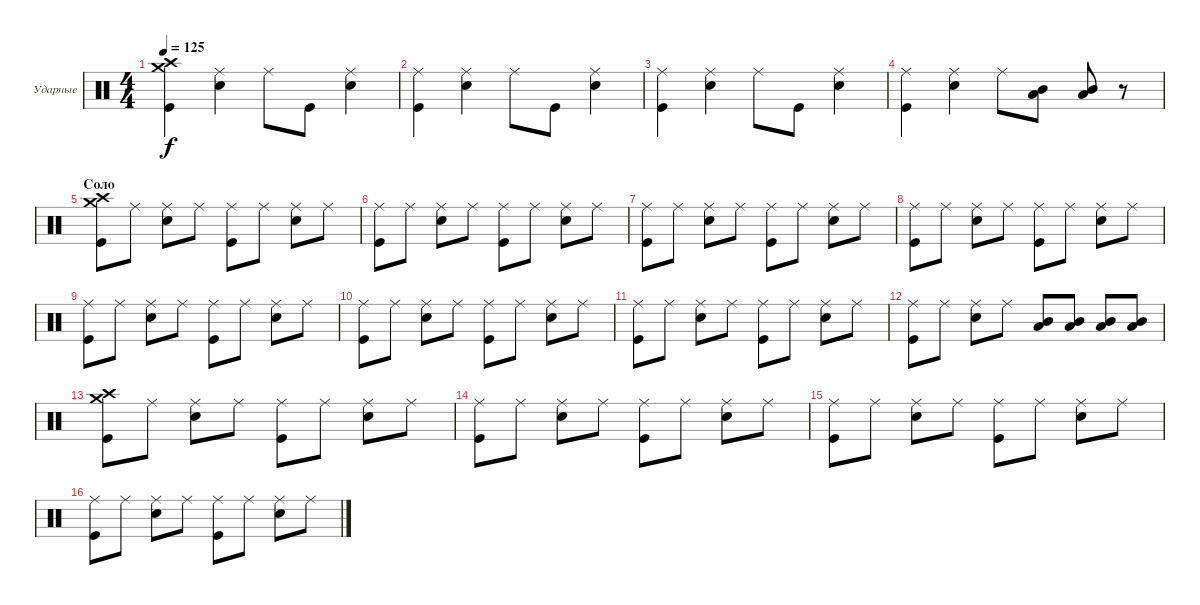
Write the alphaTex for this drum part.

\bracketExtendMode groupsimilarinstruments
\firstSystemTrackNameOrientation horizontal
\otherSystemsTrackNameOrientation horizontal
\track ("Максим Удалов" "Ударные") {instrument percussion}
\staff {score}
\articulation defaults
\ts (4 4)
\tempo 125
\clef neutral
\ks c
("Kick (hit)" "Crash medium (hit)" "Crash high (hit)").4{dy f} ("Snare (hit) 2" "Ride (middle)").4 "Ride (middle)".8 "Kick (hit)".8 ("Snare (hit) 2" "Ride (middle)").4 |
("Kick (hit)" "Ride (middle)").4 ("Snare (hit) 2" "Ride (middle)").4 "Ride (middle)".8 "Kick (hit)".8 ("Snare (hit) 2" "Ride (middle)").4 |
("Kick (hit)" "Ride (middle)").4 ("Snare (hit) 2" "Ride (middle)").4 "Ride (middle)".8 "Kick (hit)".8 ("Snare (hit) 2" "Ride (middle)").4 |
("Kick (hit)" "Ride (middle)").4 ("Snare (hit) 2" "Ride (middle)").4 "Ride (middle)".8 ("Mid Tom (hit)" "Low Tom (hit)").8 ("Mid Tom (hit)" "Low Tom (hit)").8 r.8 |
\section ("" "Соло")
("Kick (hit)" "Crash medium (hit)" "Crash high (hit)").8 "Ride (middle)".8 ("Snare (hit) 2" "Ride (middle)").8 "Ride (middle)".8 ("Kick (hit)" "Ride (middle)").8 "Ride (middle)".8 ("Snare (hit) 2" "Ride (middle)").8 "Ride (middle)".8 |
("Kick (hit)" "Ride (middle)").8 "Ride (middle)".8 ("Snare (hit) 2" "Ride (middle)").8 "Ride (middle)".8 ("Kick (hit)" "Ride (middle)").8 "Ride (middle)".8 ("Snare (hit) 2" "Ride (middle)").8 "Ride (middle)".8 |
("Kick (hit)" "Ride (middle)").8 "Ride (middle)".8 ("Snare (hit) 2" "Ride (middle)").8 "Ride (middle)".8 ("Kick (hit)" "Ride (middle)").8 "Ride (middle)".8 ("Snare (hit) 2" "Ride (middle)").8 "Ride (middle)".8 |
("Kick (hit)" "Ride (middle)").8 "Ride (middle)".8 ("Snare (hit) 2" "Ride (middle)").8 "Ride (middle)".8 ("Kick (hit)" "Ride (middle)").8 "Ride (middle)".8 ("Snare (hit) 2" "Ride (middle)").8 "Ride (middle)".8 |
("Kick (hit)" "Ride (middle)").8 "Ride (middle)".8 ("Snare (hit) 2" "Ride (middle)").8 "Ride (middle)".8 ("Kick (hit)" "Ride (middle)").8 "Ride (middle)".8 ("Snare (hit) 2" "Ride (middle)").8 "Ride (middle)".8 |
("Kick (hit)" "Ride (middle)").8 "Ride (middle)".8 ("Snare (hit) 2" "Ride (middle)").8 "Ride (middle)".8 ("Kick (hit)" "Ride (middle)").8 "Ride (middle)".8 ("Snare (hit) 2" "Ride (middle)").8 "Ride (middle)".8 |
("Kick (hit)" "Ride (middle)").8 "Ride (middle)".8 ("Snare (hit) 2" "Ride (middle)").8 "Ride (middle)".8 ("Kick (hit)" "Ride (middle)").8 "Ride (middle)".8 ("Snare (hit) 2" "Ride (middle)").8 "Ride (middle)".8 |
("Kick (hit)" "Ride (middle)").8 "Ride (middle)".8 ("Snare (hit) 2" "Ride (middle)").8 "Ride (middle)".8 ("Mid Tom (hit)" "Low Tom (hit)").8 ("Mid Tom (hit)" "Low Tom (hit)").8 ("Mid Tom (hit)" "Low Tom (hit)").8 ("Mid Tom (hit)" "Low Tom (hit)").8 |
("Kick (hit)" "Crash medium (hit)" "Crash high (hit)").8 "Ride (middle)".8 ("Snare (hit) 2" "Ride (middle)").8 "Ride (middle)".8 ("Kick (hit)" "Ride (middle)").8 "Ride (middle)".8 ("Snare (hit) 2" "Ride (middle)").8 "Ride (middle)".8 |
("Kick (hit)" "Ride (middle)").8 "Ride (middle)".8 ("Snare (hit) 2" "Ride (middle)").8 "Ride (middle)".8 ("Kick (hit)" "Ride (middle)").8 "Ride (middle)".8 ("Snare (hit) 2" "Ride (middle)").8 "Ride (middle)".8 |
("Kick (hit)" "Ride (middle)").8 "Ride (middle)".8 ("Snare (hit) 2" "Ride (middle)").8 "Ride (middle)".8 ("Kick (hit)" "Ride (middle)").8 "Ride (middle)".8 ("Snare (hit) 2" "Ride (middle)").8 "Ride (middle)".8 |
("Kick (hit)" "Ride (middle)").8 "Ride (middle)".8 ("Snare (hit) 2" "Ride (middle)").8 "Ride (middle)".8 ("Kick (hit)" "Ride (middle)").8 "Ride (middle)".8 ("Snare (hit) 2" "Ride (middle)").8 "Ride (middle)".8
